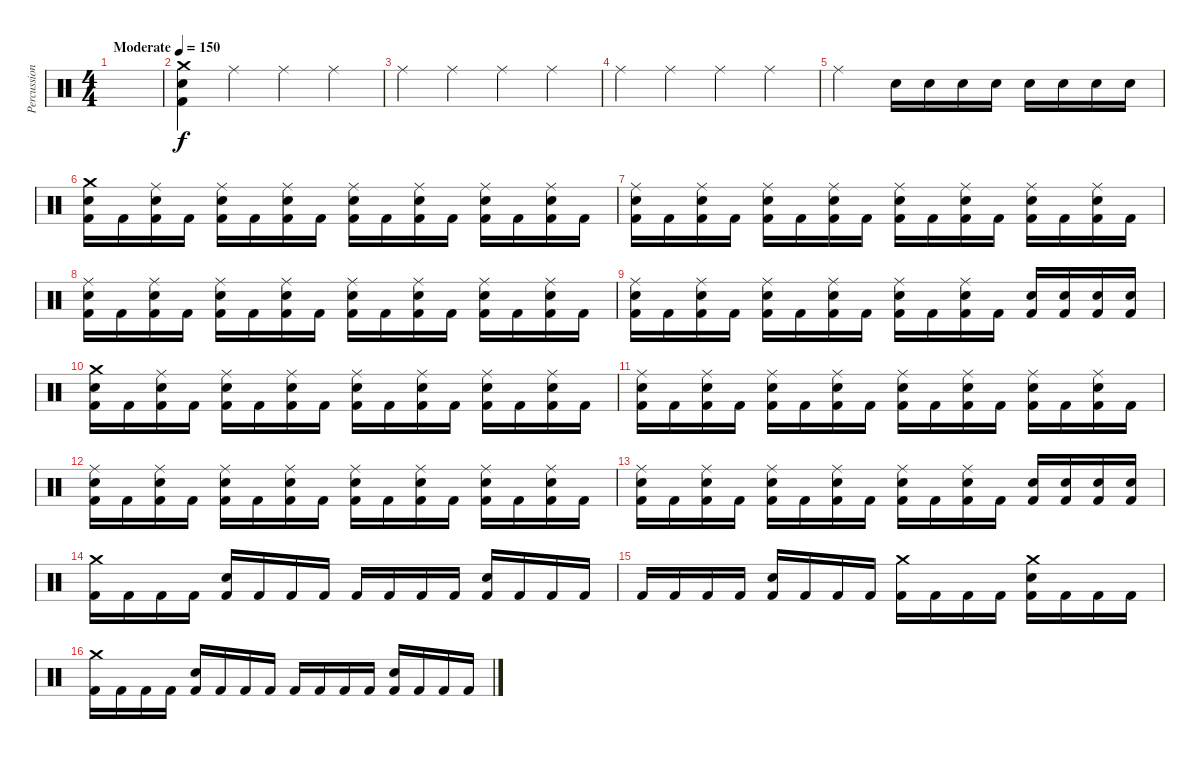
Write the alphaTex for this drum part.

\track ("Percussions" "Percussion") {instrument percussion}
\staff {score}
\articulation defaults
\ts (4 4)
\tempo (150 "Moderate")
\clef neutral
\ks c
|
("Crash medium (hit)" "Snare (hit) 2" "Kick (hit) 2").4 "Ride (middle)".4{dy f} "Ride (middle)".4 "Ride (middle)".4 |
"Ride (middle)".4 "Ride (middle)".4 "Ride (middle)".4 "Ride (middle)".4 |
"Ride (middle)".4 "Ride (middle)".4 "Ride (middle)".4 "Ride (middle)".4 |
"Ride (middle)".2 "Snare (hit) 2".16 "Snare (hit) 2".16 "Snare (hit) 2".16 "Snare (hit) 2".16 "Snare (hit) 2".16 "Snare (hit) 2".16 "Snare (hit) 2".16 "Snare (hit) 2".16 |
("Crash medium (hit)" "Snare (hit) 2" "Kick (hit) 2").16 "Kick (hit) 2".16 ("Ride (middle)" "Snare (hit) 2" "Kick (hit) 2").16 "Kick (hit) 2".16 ("Ride (middle)" "Snare (hit) 2" "Kick (hit) 2").16 "Kick (hit) 2".16 ("Ride (middle)" "Snare (hit) 2" "Kick (hit) 2").16 "Kick (hit) 2".16 ("Ride (middle)" "Snare (hit) 2" "Kick (hit) 2").16 "Kick (hit) 2".16 ("Ride (middle)" "Snare (hit) 2" "Kick (hit) 2").16 "Kick (hit) 2".16 ("Ride (middle)" "Snare (hit) 2" "Kick (hit) 2").16 "Kick (hit) 2".16 ("Ride (middle)" "Snare (hit) 2" "Kick (hit) 2").16 "Kick (hit) 2".16 |
("Ride (middle)" "Snare (hit) 2" "Kick (hit) 2").16 "Kick (hit) 2".16 ("Ride (middle)" "Snare (hit) 2" "Kick (hit) 2").16 "Kick (hit) 2".16 ("Ride (middle)" "Snare (hit) 2" "Kick (hit) 2").16 "Kick (hit) 2".16 ("Ride (middle)" "Snare (hit) 2" "Kick (hit) 2").16 "Kick (hit) 2".16 ("Ride (middle)" "Snare (hit) 2" "Kick (hit) 2").16 "Kick (hit) 2".16 ("Ride (middle)" "Snare (hit) 2" "Kick (hit) 2").16 "Kick (hit) 2".16 ("Ride (middle)" "Snare (hit) 2" "Kick (hit) 2").16 "Kick (hit) 2".16 ("Ride (middle)" "Snare (hit) 2" "Kick (hit) 2").16 "Kick (hit) 2".16 |
("Ride (middle)" "Snare (hit) 2" "Kick (hit) 2").16 "Kick (hit) 2".16 ("Ride (middle)" "Snare (hit) 2" "Kick (hit) 2").16 "Kick (hit) 2".16 ("Ride (middle)" "Snare (hit) 2" "Kick (hit) 2").16 "Kick (hit) 2".16 ("Ride (middle)" "Snare (hit) 2" "Kick (hit) 2").16 "Kick (hit) 2".16 ("Ride (middle)" "Snare (hit) 2" "Kick (hit) 2").16 "Kick (hit) 2".16 ("Ride (middle)" "Snare (hit) 2" "Kick (hit) 2").16 "Kick (hit) 2".16 ("Ride (middle)" "Snare (hit) 2" "Kick (hit) 2").16 "Kick (hit) 2".16 ("Ride (middle)" "Snare (hit) 2" "Kick (hit) 2").16 "Kick (hit) 2".16 |
("Ride (middle)" "Snare (hit) 2" "Kick (hit) 2").16 "Kick (hit) 2".16 ("Ride (middle)" "Snare (hit) 2" "Kick (hit) 2").16 "Kick (hit) 2".16 ("Ride (middle)" "Snare (hit) 2" "Kick (hit) 2").16 "Kick (hit) 2".16 ("Ride (middle)" "Snare (hit) 2" "Kick (hit) 2").16 "Kick (hit) 2".16 ("Ride (middle)" "Snare (hit) 2" "Kick (hit) 2").16 "Kick (hit) 2".16 ("Ride (middle)" "Snare (hit) 2" "Kick (hit) 2").16 "Kick (hit) 2".16 ("Snare (hit) 2" "Kick (hit) 2").16 ("Snare (hit) 2" "Kick (hit) 2").16 ("Snare (hit) 2" "Kick (hit) 2").16 ("Snare (hit) 2" "Kick (hit) 2").16 |
("Crash medium (hit)" "Snare (hit) 2" "Kick (hit) 2").16 "Kick (hit) 2".16 ("Ride (middle)" "Snare (hit) 2" "Kick (hit) 2").16 "Kick (hit) 2".16 ("Ride (middle)" "Snare (hit) 2" "Kick (hit) 2").16 "Kick (hit) 2".16 ("Ride (middle)" "Snare (hit) 2" "Kick (hit) 2").16 "Kick (hit) 2".16 ("Ride (middle)" "Snare (hit) 2" "Kick (hit) 2").16 "Kick (hit) 2".16 ("Ride (middle)" "Snare (hit) 2" "Kick (hit) 2").16 "Kick (hit) 2".16 ("Ride (middle)" "Snare (hit) 2" "Kick (hit) 2").16 "Kick (hit) 2".16 ("Ride (middle)" "Snare (hit) 2" "Kick (hit) 2").16 "Kick (hit) 2".16 |
("Ride (middle)" "Snare (hit) 2" "Kick (hit) 2").16 "Kick (hit) 2".16 ("Ride (middle)" "Snare (hit) 2" "Kick (hit) 2").16 "Kick (hit) 2".16 ("Ride (middle)" "Snare (hit) 2" "Kick (hit) 2").16 "Kick (hit) 2".16 ("Ride (middle)" "Snare (hit) 2" "Kick (hit) 2").16 "Kick (hit) 2".16 ("Ride (middle)" "Snare (hit) 2" "Kick (hit) 2").16 "Kick (hit) 2".16 ("Ride (middle)" "Snare (hit) 2" "Kick (hit) 2").16 "Kick (hit) 2".16 ("Ride (middle)" "Snare (hit) 2" "Kick (hit) 2").16 "Kick (hit) 2".16 ("Ride (middle)" "Snare (hit) 2" "Kick (hit) 2").16 "Kick (hit) 2".16 |
("Ride (middle)" "Snare (hit) 2" "Kick (hit) 2").16 "Kick (hit) 2".16 ("Ride (middle)" "Snare (hit) 2" "Kick (hit) 2").16 "Kick (hit) 2".16 ("Ride (middle)" "Snare (hit) 2" "Kick (hit) 2").16 "Kick (hit) 2".16 ("Ride (middle)" "Snare (hit) 2" "Kick (hit) 2").16 "Kick (hit) 2".16 ("Ride (middle)" "Snare (hit) 2" "Kick (hit) 2").16 "Kick (hit) 2".16 ("Ride (middle)" "Snare (hit) 2" "Kick (hit) 2").16 "Kick (hit) 2".16 ("Ride (middle)" "Snare (hit) 2" "Kick (hit) 2").16 "Kick (hit) 2".16 ("Ride (middle)" "Snare (hit) 2" "Kick (hit) 2").16 "Kick (hit) 2".16 |
("Ride (middle)" "Snare (hit) 2" "Kick (hit) 2").16 "Kick (hit) 2".16 ("Ride (middle)" "Snare (hit) 2" "Kick (hit) 2").16 "Kick (hit) 2".16 ("Ride (middle)" "Snare (hit) 2" "Kick (hit) 2").16 "Kick (hit) 2".16 ("Ride (middle)" "Snare (hit) 2" "Kick (hit) 2").16 "Kick (hit) 2".16 ("Ride (middle)" "Snare (hit) 2" "Kick (hit) 2").16 "Kick (hit) 2".16 ("Ride (middle)" "Snare (hit) 2" "Kick (hit) 2").16 "Kick (hit) 2".16 ("Snare (hit) 2" "Kick (hit) 2").16 ("Snare (hit) 2" "Kick (hit) 2").16 ("Snare (hit) 2" "Kick (hit) 2").16 ("Snare (hit) 2" "Kick (hit) 2").16 |
("Crash medium (hit)" "Kick (hit) 2").16 "Kick (hit) 2".16 "Kick (hit) 2".16 "Kick (hit) 2".16 ("Snare (hit) 2" "Kick (hit) 2").16 "Kick (hit) 2".16 "Kick (hit) 2".16 "Kick (hit) 2".16 "Kick (hit) 2".16 "Kick (hit) 2".16 "Kick (hit) 2".16 "Kick (hit) 2".16 ("Snare (hit) 2" "Kick (hit) 2").16 "Kick (hit) 2".16 "Kick (hit) 2".16 "Kick (hit) 2".16 |
"Kick (hit) 2".16 "Kick (hit) 2".16 "Kick (hit) 2".16 "Kick (hit) 2".16 ("Snare (hit) 2" "Kick (hit) 2").16 "Kick (hit) 2".16 "Kick (hit) 2".16 "Kick (hit) 2".16 ("Crash medium (hit)" "Kick (hit) 2").16 "Kick (hit) 2".16 "Kick (hit) 2".16 "Kick (hit) 2".16 ("Crash medium (hit)" "Snare (hit) 2" "Kick (hit) 2").16 "Kick (hit) 2".16 "Kick (hit) 2".16 "Kick (hit) 2".16 |
("Crash medium (hit)" "Kick (hit) 2").16 "Kick (hit) 2".16 "Kick (hit) 2".16 "Kick (hit) 2".16 ("Snare (hit) 2" "Kick (hit) 2").16 "Kick (hit) 2".16 "Kick (hit) 2".16 "Kick (hit) 2".16 "Kick (hit) 2".16 "Kick (hit) 2".16 "Kick (hit) 2".16 "Kick (hit) 2".16 ("Snare (hit) 2" "Kick (hit) 2").16 "Kick (hit) 2".16 "Kick (hit) 2".16 "Kick (hit) 2".16
